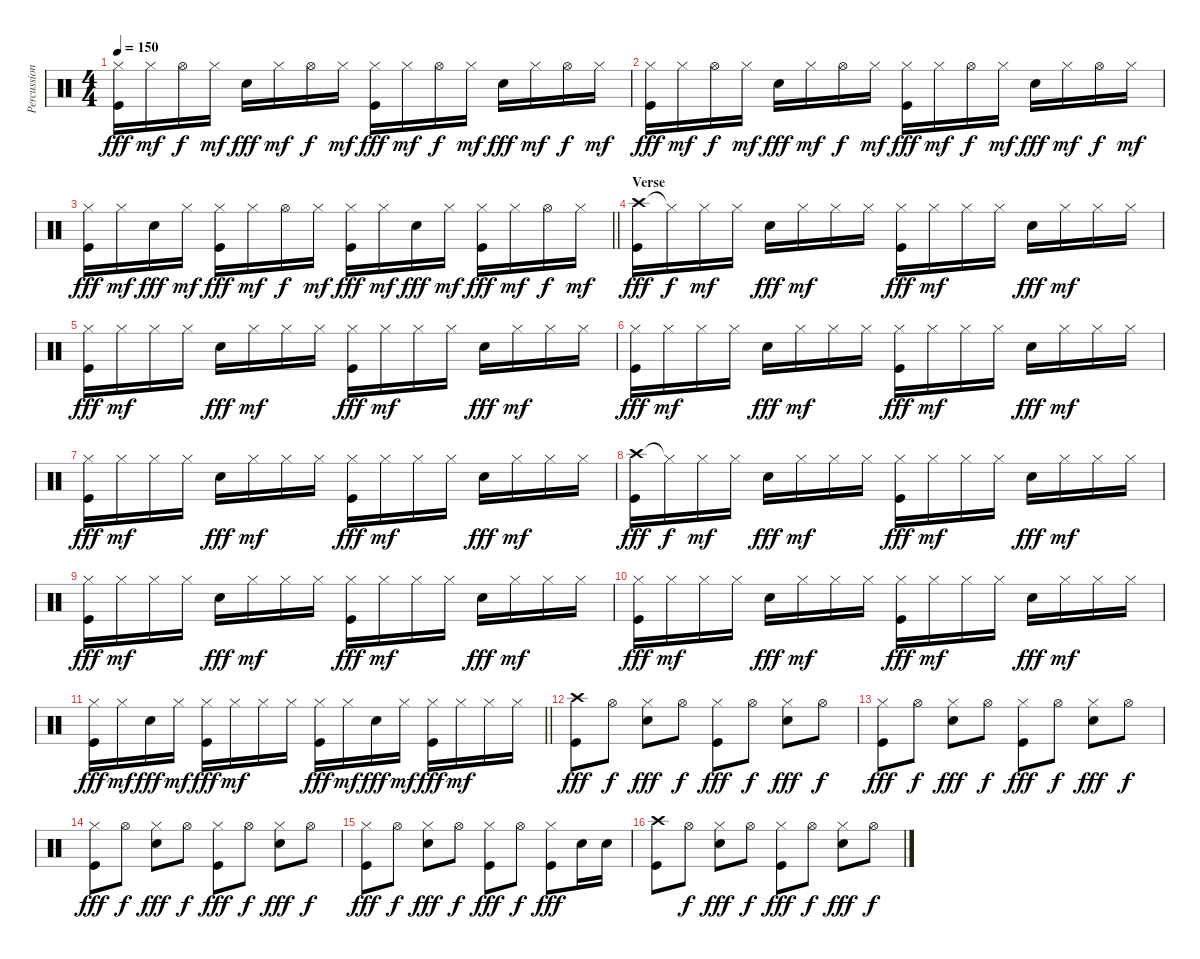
\track ("Percussion" "Percussion") {instrument percussion}
\staff {score}
\articulation defaults
\ts (4 4)
\tempo 150
\clef neutral
\ks c
("Hi-Hat (closed)" "Kick (hit)").16{dy fff} "Hi-Hat (closed)".16{dy mf} "Hi-Hat (open)".16{dy f} "Hi-Hat (closed)".16{dy mf} "Electric Snare (hit)".16{dy fff} "Hi-Hat (closed)".16{dy mf} "Hi-Hat (open)".16{dy f} "Hi-Hat (closed)".16{dy mf} ("Hi-Hat (closed)" "Kick (hit)").16{dy fff} "Hi-Hat (closed)".16{dy mf} "Hi-Hat (open)".16{dy f} "Hi-Hat (closed)".16{dy mf} "Electric Snare (hit)".16{dy fff} "Hi-Hat (closed)".16{dy mf} "Hi-Hat (open)".16{dy f} "Hi-Hat (closed)".16{dy mf} |
("Hi-Hat (closed)" "Kick (hit)").16{dy fff} "Hi-Hat (closed)".16{dy mf} "Hi-Hat (open)".16{dy f} "Hi-Hat (closed)".16{dy mf} "Electric Snare (hit)".16{dy fff} "Hi-Hat (closed)".16{dy mf} "Hi-Hat (open)".16{dy f} "Hi-Hat (closed)".16{dy mf} ("Hi-Hat (closed)" "Kick (hit)").16{dy fff} "Hi-Hat (closed)".16{dy mf} "Hi-Hat (open)".16{dy f} "Hi-Hat (closed)".16{dy mf} "Electric Snare (hit)".16{dy fff} "Hi-Hat (closed)".16{dy mf} "Hi-Hat (open)".16{dy f} "Hi-Hat (closed)".16{dy mf} |
\barLineRight lightlight
("Hi-Hat (closed)" "Kick (hit)").16{dy fff} "Hi-Hat (closed)".16{dy mf} "Electric Snare (hit)".16{dy fff} "Hi-Hat (closed)".16{dy mf} ("Hi-Hat (closed)" "Kick (hit)").16{dy fff} "Hi-Hat (closed)".16{dy mf} "Hi-Hat (open)".16{dy f} "Hi-Hat (closed)".16{dy mf} ("Hi-Hat (closed)" "Kick (hit)").16{dy fff} "Hi-Hat (closed)".16{dy mf} "Electric Snare (hit)".16{dy fff} "Hi-Hat (closed)".16{dy mf} ("Hi-Hat (closed)" "Kick (hit)").16{dy fff} "Hi-Hat (closed)".16{dy mf} "Hi-Hat (open)".16{dy f} "Hi-Hat (closed)".16{dy mf} |
\section ("" "Verse")
("Crash high (hit)" "Kick (hit)").16{dy fff} "Hi-Hat (closed)"{t}.16{dy f} "Hi-Hat (closed)".16{dy mf} "Hi-Hat (closed)".16 "Electric Snare (hit)".16{dy fff} "Hi-Hat (closed)".16{dy mf} "Hi-Hat (closed)".16 "Hi-Hat (closed)".16 ("Hi-Hat (closed)" "Kick (hit)").16{dy fff} "Hi-Hat (closed)".16{dy mf} "Hi-Hat (closed)".16 "Hi-Hat (closed)".16 "Electric Snare (hit)".16{dy fff} "Hi-Hat (closed)".16{dy mf} "Hi-Hat (closed)".16 "Hi-Hat (closed)".16 |
("Hi-Hat (closed)" "Kick (hit)").16{dy fff} "Hi-Hat (closed)".16{dy mf} "Hi-Hat (closed)".16 "Hi-Hat (closed)".16 "Electric Snare (hit)".16{dy fff} "Hi-Hat (closed)".16{dy mf} "Hi-Hat (closed)".16 "Hi-Hat (closed)".16 ("Hi-Hat (closed)" "Kick (hit)").16{dy fff} "Hi-Hat (closed)".16{dy mf} "Hi-Hat (closed)".16 "Hi-Hat (closed)".16 "Electric Snare (hit)".16{dy fff} "Hi-Hat (closed)".16{dy mf} "Hi-Hat (closed)".16 "Hi-Hat (closed)".16 |
("Hi-Hat (closed)" "Kick (hit)").16{dy fff} "Hi-Hat (closed)".16{dy mf} "Hi-Hat (closed)".16 "Hi-Hat (closed)".16 "Electric Snare (hit)".16{dy fff} "Hi-Hat (closed)".16{dy mf} "Hi-Hat (closed)".16 "Hi-Hat (closed)".16 ("Hi-Hat (closed)" "Kick (hit)").16{dy fff} "Hi-Hat (closed)".16{dy mf} "Hi-Hat (closed)".16 "Hi-Hat (closed)".16 "Electric Snare (hit)".16{dy fff} "Hi-Hat (closed)".16{dy mf} "Hi-Hat (closed)".16 "Hi-Hat (closed)".16 |
("Hi-Hat (closed)" "Kick (hit)").16{dy fff} "Hi-Hat (closed)".16{dy mf} "Hi-Hat (closed)".16 "Hi-Hat (closed)".16 "Electric Snare (hit)".16{dy fff} "Hi-Hat (closed)".16{dy mf} "Hi-Hat (closed)".16 "Hi-Hat (closed)".16 ("Hi-Hat (closed)" "Kick (hit)").16{dy fff} "Hi-Hat (closed)".16{dy mf} "Hi-Hat (closed)".16 "Hi-Hat (closed)".16 "Electric Snare (hit)".16{dy fff} "Hi-Hat (closed)".16{dy mf} "Hi-Hat (closed)".16 "Hi-Hat (closed)".16 |
("Crash high (hit)" "Kick (hit)").16{dy fff} "Hi-Hat (closed)"{t}.16{dy f} "Hi-Hat (closed)".16{dy mf} "Hi-Hat (closed)".16 "Electric Snare (hit)".16{dy fff} "Hi-Hat (closed)".16{dy mf} "Hi-Hat (closed)".16 "Hi-Hat (closed)".16 ("Hi-Hat (closed)" "Kick (hit)").16{dy fff} "Hi-Hat (closed)".16{dy mf} "Hi-Hat (closed)".16 "Hi-Hat (closed)".16 "Electric Snare (hit)".16{dy fff} "Hi-Hat (closed)".16{dy mf} "Hi-Hat (closed)".16 "Hi-Hat (closed)".16 |
("Hi-Hat (closed)" "Kick (hit)").16{dy fff} "Hi-Hat (closed)".16{dy mf} "Hi-Hat (closed)".16 "Hi-Hat (closed)".16 "Electric Snare (hit)".16{dy fff} "Hi-Hat (closed)".16{dy mf} "Hi-Hat (closed)".16 "Hi-Hat (closed)".16 ("Hi-Hat (closed)" "Kick (hit)").16{dy fff} "Hi-Hat (closed)".16{dy mf} "Hi-Hat (closed)".16 "Hi-Hat (closed)".16 "Electric Snare (hit)".16{dy fff} "Hi-Hat (closed)".16{dy mf} "Hi-Hat (closed)".16 "Hi-Hat (closed)".16 |
("Hi-Hat (closed)" "Kick (hit)").16{dy fff} "Hi-Hat (closed)".16{dy mf} "Hi-Hat (closed)".16 "Hi-Hat (closed)".16 "Electric Snare (hit)".16{dy fff} "Hi-Hat (closed)".16{dy mf} "Hi-Hat (closed)".16 "Hi-Hat (closed)".16 ("Hi-Hat (closed)" "Kick (hit)").16{dy fff} "Hi-Hat (closed)".16{dy mf} "Hi-Hat (closed)".16 "Hi-Hat (closed)".16 "Electric Snare (hit)".16{dy fff} "Hi-Hat (closed)".16{dy mf} "Hi-Hat (closed)".16 "Hi-Hat (closed)".16 |
\barLineRight lightlight
("Hi-Hat (closed)" "Kick (hit)").16{dy fff} "Hi-Hat (closed)".16{dy mf} "Electric Snare (hit)".16{dy fff} "Hi-Hat (closed)".16{dy mf} ("Hi-Hat (closed)" "Kick (hit)").16{dy fff} "Hi-Hat (closed)".16{dy mf} "Hi-Hat (closed)".16 "Hi-Hat (closed)".16 ("Hi-Hat (closed)" "Kick (hit)").16{dy fff} "Hi-Hat (closed)".16{dy mf} "Electric Snare (hit)".16{dy fff} "Hi-Hat (closed)".16{dy mf} ("Hi-Hat (closed)" "Kick (hit)").16{dy fff} "Hi-Hat (closed)".16{dy mf} "Hi-Hat (closed)".16 "Hi-Hat (closed)".16 |
("Crash high (hit)" "Kick (hit)").8{dy fff} "Hi-Hat (open)".8{dy f} ("Hi-Hat (closed)" "Electric Snare (hit)").8{dy fff} "Hi-Hat (open)".8{dy f} ("Hi-Hat (closed)" "Kick (hit)").8{dy fff} "Hi-Hat (open)".8{dy f} ("Hi-Hat (closed)" "Electric Snare (hit)").8{dy fff} "Hi-Hat (open)".8{dy f} |
("Hi-Hat (closed)" "Kick (hit)").8{dy fff} "Hi-Hat (open)".8{dy f} ("Hi-Hat (closed)" "Electric Snare (hit)").8{dy fff} "Hi-Hat (open)".8{dy f} ("Hi-Hat (closed)" "Kick (hit)").8{dy fff} "Hi-Hat (open)".8{dy f} ("Hi-Hat (closed)" "Electric Snare (hit)").8{dy fff} "Hi-Hat (open)".8{dy f} |
("Hi-Hat (closed)" "Kick (hit)").8{dy fff} "Hi-Hat (open)".8{dy f} ("Hi-Hat (closed)" "Electric Snare (hit)").8{dy fff} "Hi-Hat (open)".8{dy f} ("Hi-Hat (closed)" "Kick (hit)").8{dy fff} "Hi-Hat (open)".8{dy f} ("Hi-Hat (closed)" "Electric Snare (hit)").8{dy fff} "Hi-Hat (open)".8{dy f} |
("Hi-Hat (closed)" "Kick (hit)").8{dy fff} "Hi-Hat (open)".8{dy f} ("Hi-Hat (closed)" "Electric Snare (hit)").8{dy fff} "Hi-Hat (open)".8{dy f} ("Hi-Hat (closed)" "Kick (hit)").8{dy fff} "Hi-Hat (open)".8{dy f} ("Hi-Hat (closed)" "Kick (hit)").8{dy fff} "Electric Snare (hit)".16 "Electric Snare (hit)".16 |
("Crash high (hit)" "Kick (hit)").8 "Hi-Hat (open)".8{dy f} ("Hi-Hat (closed)" "Electric Snare (hit)").8{dy fff} "Hi-Hat (open)".8{dy f} ("Hi-Hat (closed)" "Kick (hit)").8{dy fff} "Hi-Hat (open)".8{dy f} ("Hi-Hat (closed)" "Electric Snare (hit)").8{dy fff} "Hi-Hat (open)".8{dy f}
